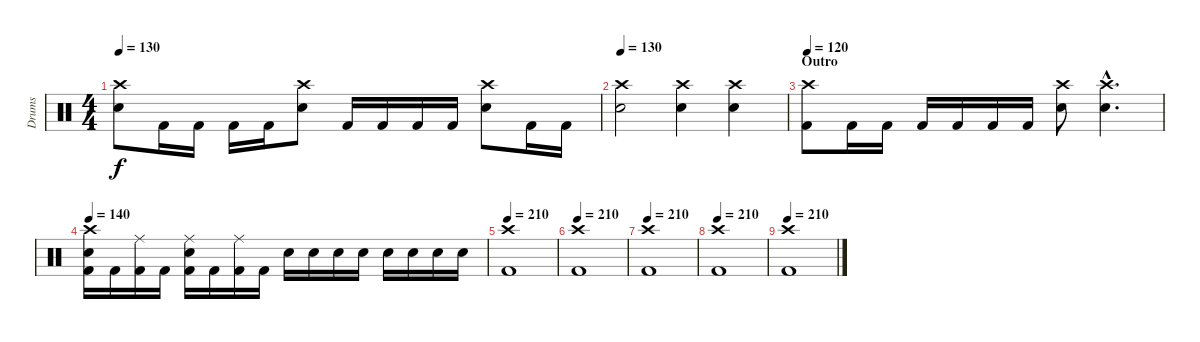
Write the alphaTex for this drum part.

\track ("Drums" "Drums") {instrument percussion}
\staff {score}
\articulation defaults
\ts (4 4)
\tempo 130
\clef neutral
\ks c
("Crash high (hit)" "Snare (hit) 2").8{dy f} "Kick (hit) 2".16 "Kick (hit) 2".16 "Kick (hit) 2".16 "Kick (hit) 2".16 ("Crash high (hit)" "Snare (hit) 2").8 "Kick (hit) 2".16 "Kick (hit) 2".16 "Kick (hit) 2".16 "Kick (hit) 2".16 ("Crash high (hit)" "Snare (hit) 2").8 "Kick (hit) 2".16 "Kick (hit) 2".16 |
\tempo 130
("Crash high (hit)" "Snare (hit) 2").2 ("Crash high (hit)" "Snare (hit) 2").4 ("Crash high (hit)" "Snare (hit) 2").4 |
\section ("" "Outro")
\tempo 120
("Crash high (hit)" "Kick (hit) 2").8 "Kick (hit) 2".16 "Kick (hit) 2".16 "Kick (hit) 2".16 "Kick (hit) 2".16 "Kick (hit) 2".16 "Kick (hit) 2".16 ("Crash high (hit)" "Snare (hit) 2").8 ("Crash high (hit)"{hac} "Snare (hit) 2"{hac}).4{d} |
\tempo 140
("Crash high (hit)" "Snare (hit) 2" "Kick (hit) 2").16 "Kick (hit) 2".16 ("Ride (middle)" "Kick (hit) 2").16 "Kick (hit) 2".16 ("Ride (middle)" "Snare (hit) 2" "Kick (hit) 2").16 "Kick (hit) 2".16 ("Ride (middle)" "Kick (hit) 2").16 "Kick (hit) 2".16 "Snare (hit) 2".16 "Snare (hit) 2".16 "Snare (hit) 2".16 "Snare (hit) 2".16 "Snare (hit) 2".16 "Snare (hit) 2".16 "Snare (hit) 2".16 "Snare (hit) 2".16 |
\tempo 210
("Crash high (hit)" "Kick (hit) 2").1 |
\tempo 210
("Crash high (hit)" "Kick (hit) 2").1 |
\tempo 210
("Crash high (hit)" "Kick (hit) 2").1 |
\tempo 210
("Crash high (hit)" "Kick (hit) 2").1 |
\tempo 210
("Crash high (hit)" "Kick (hit) 2").1
